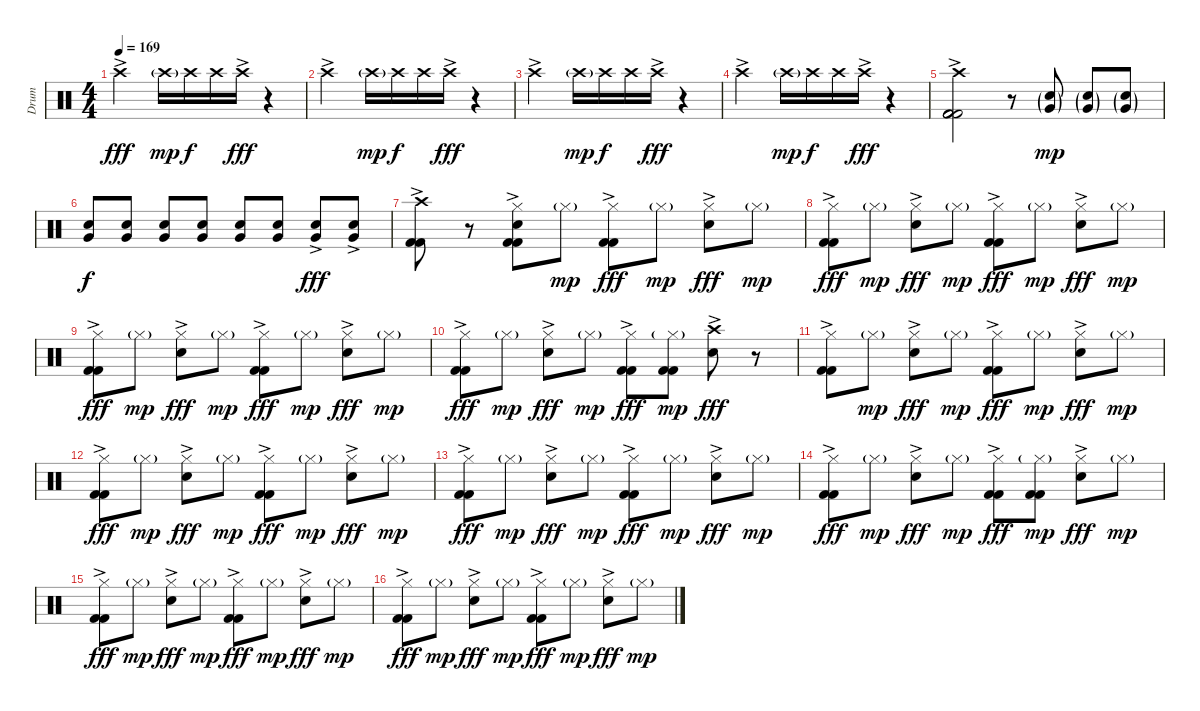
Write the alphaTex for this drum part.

\track ("Drum" "Drum") {instrument percussion}
\staff {score}
\articulation defaults
\ts (4 4)
\tempo 169
\clef neutral
\ks c "Crash high (hit)"{ac}.2{dy fff} "Crash high (hit)"{g}.16{dy mp} "Crash high (hit)".16{dy f} "Crash high (hit)".16 "Crash high (hit)"{ac}.16{dy fff}
r.4 |
"Crash high (hit)"{ac}.2 "Crash high (hit)"{g}.16{dy mp} "Crash high (hit)".16{dy f} "Crash high (hit)".16 "Crash high (hit)"{ac}.16{dy fff} r.4 |
"Crash high (hit)"{ac}.2 "Crash high (hit)"{g}.16{dy mp} "Crash high (hit)".16{dy f} "Crash high (hit)".16 "Crash high (hit)"{ac}.16{dy fff} r.4 |
"Crash high (hit)"{ac}.2 "Crash high (hit)"{g}.16{dy mp} "Crash high (hit)".16{dy f} "Crash high (hit)".16 "Crash high (hit)"{ac}.16{dy fff} r.4 |
("Crash high (hit)"{ac} "Kick (hit) 2" "Kick (hit) 2" "Kick (hit) 2" "Kick (hit) 2").2 r.8 ("Very Low Tom (hit)"{g} "Electric Snare (hit)"{g}).8{dy mp} ("Very Low Tom (hit)"{g} "Electric Snare (hit)"{g}).8 ("Very Low Tom (hit)"{g} "Electric Snare (hit)"{g}).8 |
("Very Low Tom (hit)" "Electric Snare (hit)").8{dy f} ("Very Low Tom (hit)" "Electric Snare (hit)").8 ("Very Low Tom (hit)" "Electric Snare (hit)").8 ("Very Low Tom (hit)" "Electric Snare (hit)").8 ("Very Low Tom (hit)" "Electric Snare (hit)").8 ("Very Low Tom (hit)" "Electric Snare (hit)").8 ("Very Low Tom (hit)"{ac} "Electric Snare (hit)").8{dy fff} ("Very Low Tom (hit)"{ac} "Electric Snare (hit)").8 |
("Crash high (hit)"{ac} "Kick (hit) 2" "Kick (hit) 2").8 r.8 ("Hi-Hat (closed)"{ac} "Electric Snare (hit)" "Kick (hit) 2" "Kick (hit) 2").8 "Hi-Hat (closed)"{g}.8{dy mp} ("Hi-Hat (closed)"{ac} "Kick (hit) 2" "Kick (hit) 2").8{dy fff} "Hi-Hat (closed)"{g}.8{dy mp} ("Hi-Hat (closed)"{ac} "Electric Snare (hit)").8{dy fff} "Hi-Hat (closed)"{g}.8{dy mp} |
("Hi-Hat (closed)"{ac} "Kick (hit) 2" "Kick (hit) 2").8{dy fff} "Hi-Hat (closed)"{g}.8{dy mp} ("Hi-Hat (closed)"{ac} "Electric Snare (hit)").8{dy fff} "Hi-Hat (closed)"{g}.8{dy mp} ("Hi-Hat (closed)"{ac} "Kick (hit) 2" "Kick (hit) 2").8{dy fff} "Hi-Hat (closed)"{g}.8{dy mp} ("Hi-Hat (closed)"{ac} "Electric Snare (hit)").8{dy fff} "Hi-Hat (closed)"{g}.8{dy mp} |
("Hi-Hat (closed)"{ac} "Kick (hit) 2" "Kick (hit) 2").8{dy fff} "Hi-Hat (closed)"{g}.8{dy mp} ("Hi-Hat (closed)"{ac} "Electric Snare (hit)").8{dy fff} "Hi-Hat (closed)"{g}.8{dy mp} ("Hi-Hat (closed)"{ac} "Kick (hit) 2" "Kick (hit) 2").8{dy fff} "Hi-Hat (closed)"{g}.8{dy mp} ("Hi-Hat (closed)"{ac} "Electric Snare (hit)").8{dy fff} "Hi-Hat (closed)"{g}.8{dy mp} |
("Hi-Hat (closed)"{ac} "Kick (hit) 2" "Kick (hit) 2").8{dy fff} "Hi-Hat (closed)"{g}.8{dy mp} ("Hi-Hat (closed)"{ac} "Electric Snare (hit)").8{dy fff} "Hi-Hat (closed)"{g}.8{dy mp} ("Hi-Hat (closed)"{ac} "Kick (hit) 2" "Kick (hit) 2").8{dy fff} ("Hi-Hat (closed)"{g} "Kick (hit) 2" "Kick (hit) 2").8{dy mp} ("Crash high (hit)"{ac} "Electric Snare (hit)").8{dy fff} r.8 |
("Hi-Hat (closed)"{ac} "Kick (hit) 2" "Kick (hit) 2").8 "Hi-Hat (closed)"{g}.8{dy mp} ("Hi-Hat (closed)"{ac} "Electric Snare (hit)").8{dy fff} "Hi-Hat (closed)"{g}.8{dy mp} ("Hi-Hat (closed)"{ac} "Kick (hit) 2" "Kick (hit) 2").8{dy fff} "Hi-Hat (closed)"{g}.8{dy mp} ("Hi-Hat (closed)"{ac} "Electric Snare (hit)").8{dy fff} "Hi-Hat (closed)"{g}.8{dy mp} |
("Hi-Hat (closed)"{ac} "Kick (hit) 2" "Kick (hit) 2").8{dy fff} "Hi-Hat (closed)"{g}.8{dy mp} ("Hi-Hat (closed)"{ac} "Electric Snare (hit)").8{dy fff} "Hi-Hat (closed)"{g}.8{dy mp} ("Hi-Hat (closed)"{ac} "Kick (hit) 2" "Kick (hit) 2").8{dy fff} "Hi-Hat (closed)"{g}.8{dy mp} ("Hi-Hat (closed)"{ac} "Electric Snare (hit)").8{dy fff} "Hi-Hat (closed)"{g}.8{dy mp} |
("Hi-Hat (closed)"{ac} "Kick (hit) 2" "Kick (hit) 2").8{dy fff} "Hi-Hat (closed)"{g}.8{dy mp} ("Hi-Hat (closed)"{ac} "Electric Snare (hit)").8{dy fff} "Hi-Hat (closed)"{g}.8{dy mp} ("Hi-Hat (closed)"{ac} "Kick (hit) 2" "Kick (hit) 2").8{dy fff} "Hi-Hat (closed)"{g}.8{dy mp} ("Hi-Hat (closed)"{ac} "Electric Snare (hit)").8{dy fff} "Hi-Hat (closed)"{g}.8{dy mp} |
("Hi-Hat (closed)"{ac} "Kick (hit) 2" "Kick (hit) 2").8{dy fff} "Hi-Hat (closed)"{g}.8{dy mp} ("Hi-Hat (closed)"{ac} "Electric Snare (hit)").8{dy fff} "Hi-Hat (closed)"{g}.8{dy mp} ("Hi-Hat (closed)"{ac} "Kick (hit) 2" "Kick (hit) 2").8{dy fff} ("Hi-Hat (closed)"{g} "Kick (hit) 2" "Kick (hit) 2").8{dy mp} ("Hi-Hat (closed)"{ac} "Electric Snare (hit)").8{dy fff} "Hi-Hat (closed)"{g}.8{dy mp} |
("Hi-Hat (closed)"{ac} "Kick (hit) 2" "Kick (hit) 2").8{dy fff} "Hi-Hat (closed)"{g}.8{dy mp} ("Hi-Hat (closed)"{ac} "Electric Snare (hit)").8{dy fff} "Hi-Hat (closed)"{g}.8{dy mp} ("Hi-Hat (closed)"{ac} "Kick (hit) 2" "Kick (hit) 2").8{dy fff} "Hi-Hat (closed)"{g}.8{dy mp} ("Hi-Hat (closed)"{ac} "Electric Snare (hit)").8{dy fff} "Hi-Hat (closed)"{g}.8{dy mp} |
("Hi-Hat (closed)"{ac} "Kick (hit) 2" "Kick (hit) 2").8{dy fff} "Hi-Hat (closed)"{g}.8{dy mp} ("Hi-Hat (closed)"{ac} "Electric Snare (hit)").8{dy fff} "Hi-Hat (closed)"{g}.8{dy mp} ("Hi-Hat (closed)"{ac} "Kick (hit) 2" "Kick (hit) 2").8{dy fff} "Hi-Hat (closed)"{g}.8{dy mp} ("Hi-Hat (closed)"{ac} "Electric Snare (hit)").8{dy fff} "Hi-Hat (closed)"{g}.8{dy mp}
